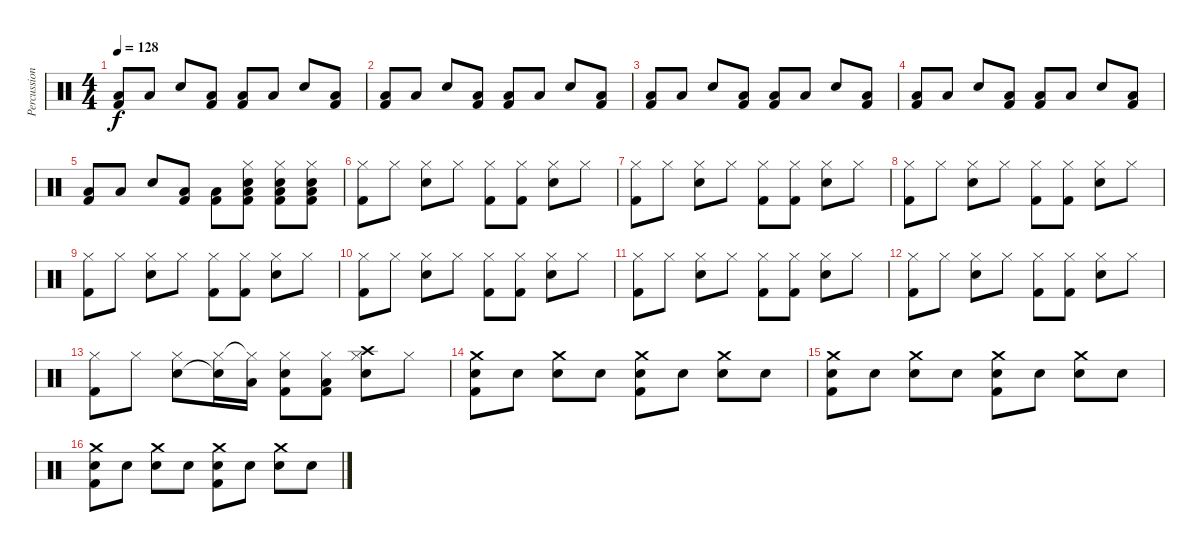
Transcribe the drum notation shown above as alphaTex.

\track ("Percussion" "Percussion") {instrument percussion}
\staff {score}
\articulation defaults
\ts (4 4)
\tempo 128
\clef neutral
\ks c
("Low Floor Tom (hit)" "Kick (hit) 2").8{dy f} "Low Floor Tom (hit)".8 "Snare (hit) 2".8 ("Low Floor Tom (hit)" "Kick (hit) 2").8 ("Low Floor Tom (hit)" "Kick (hit) 2").8 "Low Floor Tom (hit)".8 "Snare (hit) 2".8 ("Low Floor Tom (hit)" "Kick (hit) 2").8 |
("Low Floor Tom (hit)" "Kick (hit) 2").8 "Low Floor Tom (hit)".8 "Snare (hit) 2".8 ("Low Floor Tom (hit)" "Kick (hit) 2").8 ("Low Floor Tom (hit)" "Kick (hit) 2").8 "Low Floor Tom (hit)".8 "Snare (hit) 2".8 ("Low Floor Tom (hit)" "Kick (hit) 2").8 |
("Low Floor Tom (hit)" "Kick (hit) 2").8 "Low Floor Tom (hit)".8 "Snare (hit) 2".8 ("Low Floor Tom (hit)" "Kick (hit) 2").8 ("Low Floor Tom (hit)" "Kick (hit) 2").8 "Low Floor Tom (hit)".8 "Snare (hit) 2".8 ("Low Floor Tom (hit)" "Kick (hit) 2").8 |
("Low Floor Tom (hit)" "Kick (hit) 2").8 "Low Floor Tom (hit)".8 "Snare (hit) 2".8 ("Low Floor Tom (hit)" "Kick (hit) 2").8 ("Low Floor Tom (hit)" "Kick (hit) 2").8 "Low Floor Tom (hit)".8 "Snare (hit) 2".8 ("Low Floor Tom (hit)" "Kick (hit) 2").8 |
("Low Floor Tom (hit)" "Kick (hit) 2").8 "Low Floor Tom (hit)".8 "Snare (hit) 2".8 ("Low Floor Tom (hit)" "Kick (hit) 2").8 ("Low Floor Tom (hit)" "Kick (hit) 2").8 ("Hi-Hat (closed)" "Snare (hit) 2" "Low Floor Tom (hit)" "Kick (hit) 2").8 ("Hi-Hat (closed)" "Snare (hit) 2" "Low Floor Tom (hit)" "Kick (hit) 2").8 ("Hi-Hat (closed)" "Snare (hit) 2" "Low Floor Tom (hit)" "Kick (hit) 2").8 |
("Hi-Hat (closed)" "Kick (hit) 2").8 "Hi-Hat (closed)".8 ("Hi-Hat (closed)" "Snare (hit) 2").8 "Hi-Hat (closed)".8 ("Hi-Hat (closed)" "Kick (hit) 2").8 ("Hi-Hat (closed)" "Kick (hit) 2").8 ("Hi-Hat (closed)" "Snare (hit) 2").8 "Hi-Hat (closed)".8 |
("Hi-Hat (closed)" "Kick (hit) 2").8 "Hi-Hat (closed)".8 ("Hi-Hat (closed)" "Snare (hit) 2").8 "Hi-Hat (closed)".8 ("Hi-Hat (closed)" "Kick (hit) 2").8 ("Hi-Hat (closed)" "Kick (hit) 2").8 ("Hi-Hat (closed)" "Snare (hit) 2").8 "Hi-Hat (closed)".8 |
("Hi-Hat (closed)" "Kick (hit) 2").8 "Hi-Hat (closed)".8 ("Hi-Hat (closed)" "Snare (hit) 2").8 "Hi-Hat (closed)".8 ("Hi-Hat (closed)" "Kick (hit) 2").8 ("Hi-Hat (closed)" "Kick (hit) 2").8 ("Hi-Hat (closed)" "Snare (hit) 2").8 "Hi-Hat (closed)".8 |
("Hi-Hat (closed)" "Kick (hit) 2").8 "Hi-Hat (closed)".8 ("Hi-Hat (closed)" "Snare (hit) 2").8 "Hi-Hat (closed)".8 ("Hi-Hat (closed)" "Kick (hit) 2").8 ("Hi-Hat (closed)" "Kick (hit) 2").8 ("Hi-Hat (closed)" "Snare (hit) 2").8 "Hi-Hat (closed)".8 |
("Hi-Hat (closed)" "Kick (hit) 2").8 "Hi-Hat (closed)".8 ("Hi-Hat (closed)" "Snare (hit) 2").8 "Hi-Hat (closed)".8 ("Hi-Hat (closed)" "Kick (hit) 2").8 ("Hi-Hat (closed)" "Kick (hit) 2").8 ("Hi-Hat (closed)" "Snare (hit) 2").8 "Hi-Hat (closed)".8 |
("Hi-Hat (closed)" "Kick (hit) 2").8 "Hi-Hat (closed)".8 ("Hi-Hat (closed)" "Snare (hit) 2").8 "Hi-Hat (closed)".8 ("Hi-Hat (closed)" "Kick (hit) 2").8 ("Hi-Hat (closed)" "Kick (hit) 2").8 ("Hi-Hat (closed)" "Snare (hit) 2").8 "Hi-Hat (closed)".8 |
("Hi-Hat (closed)" "Kick (hit) 2").8 "Hi-Hat (closed)".8 ("Hi-Hat (closed)" "Snare (hit) 2").8 "Hi-Hat (closed)".8 ("Hi-Hat (closed)" "Kick (hit) 2").8 ("Hi-Hat (closed)" "Kick (hit) 2").8 ("Hi-Hat (closed)" "Snare (hit) 2").8 "Hi-Hat (closed)".8 |
("Hi-Hat (closed)" "Kick (hit) 2").8 "Hi-Hat (closed)".8 ("Hi-Hat (closed)" "Snare (hit) 2").8 ("Hi-Hat (closed)" "Snare (hit)"{t}).16 ("Hi-Hat (closed)"{t} "Low Floor Tom (hit)").16 ("Hi-Hat (closed)" "Snare (hit) 2" "Kick (hit) 2").8 ("Hi-Hat (closed)" "Low Floor Tom (hit)" "Kick (hit) 2").8 ("Crash high (hit)" "Hi-Hat (closed)" "Snare (hit) 2").8 "Hi-Hat (closed)".8 |
("Crash medium (hit)" "Snare (hit) 2" "Kick (hit) 2").8 "Snare (hit) 2".8 ("Crash medium (hit)" "Snare (hit) 2").8 "Snare (hit) 2".8 ("Crash medium (hit)" "Snare (hit) 2" "Kick (hit) 2").8 "Snare (hit) 2".8 ("Crash medium (hit)" "Snare (hit) 2").8 "Snare (hit) 2".8 |
("Crash medium (hit)" "Snare (hit) 2" "Kick (hit) 2").8 "Snare (hit) 2".8 ("Crash medium (hit)" "Snare (hit) 2").8 "Snare (hit) 2".8 ("Crash medium (hit)" "Snare (hit) 2" "Kick (hit) 2").8 "Snare (hit) 2".8 ("Crash medium (hit)" "Snare (hit) 2").8 "Snare (hit) 2".8 |
("Crash medium (hit)" "Snare (hit) 2" "Kick (hit) 2").8 "Snare (hit) 2".8 ("Crash medium (hit)" "Snare (hit) 2").8 "Snare (hit) 2".8 ("Crash medium (hit)" "Snare (hit) 2" "Kick (hit) 2").8 "Snare (hit) 2".8 ("Crash medium (hit)" "Snare (hit) 2").8 "Snare (hit) 2".8
